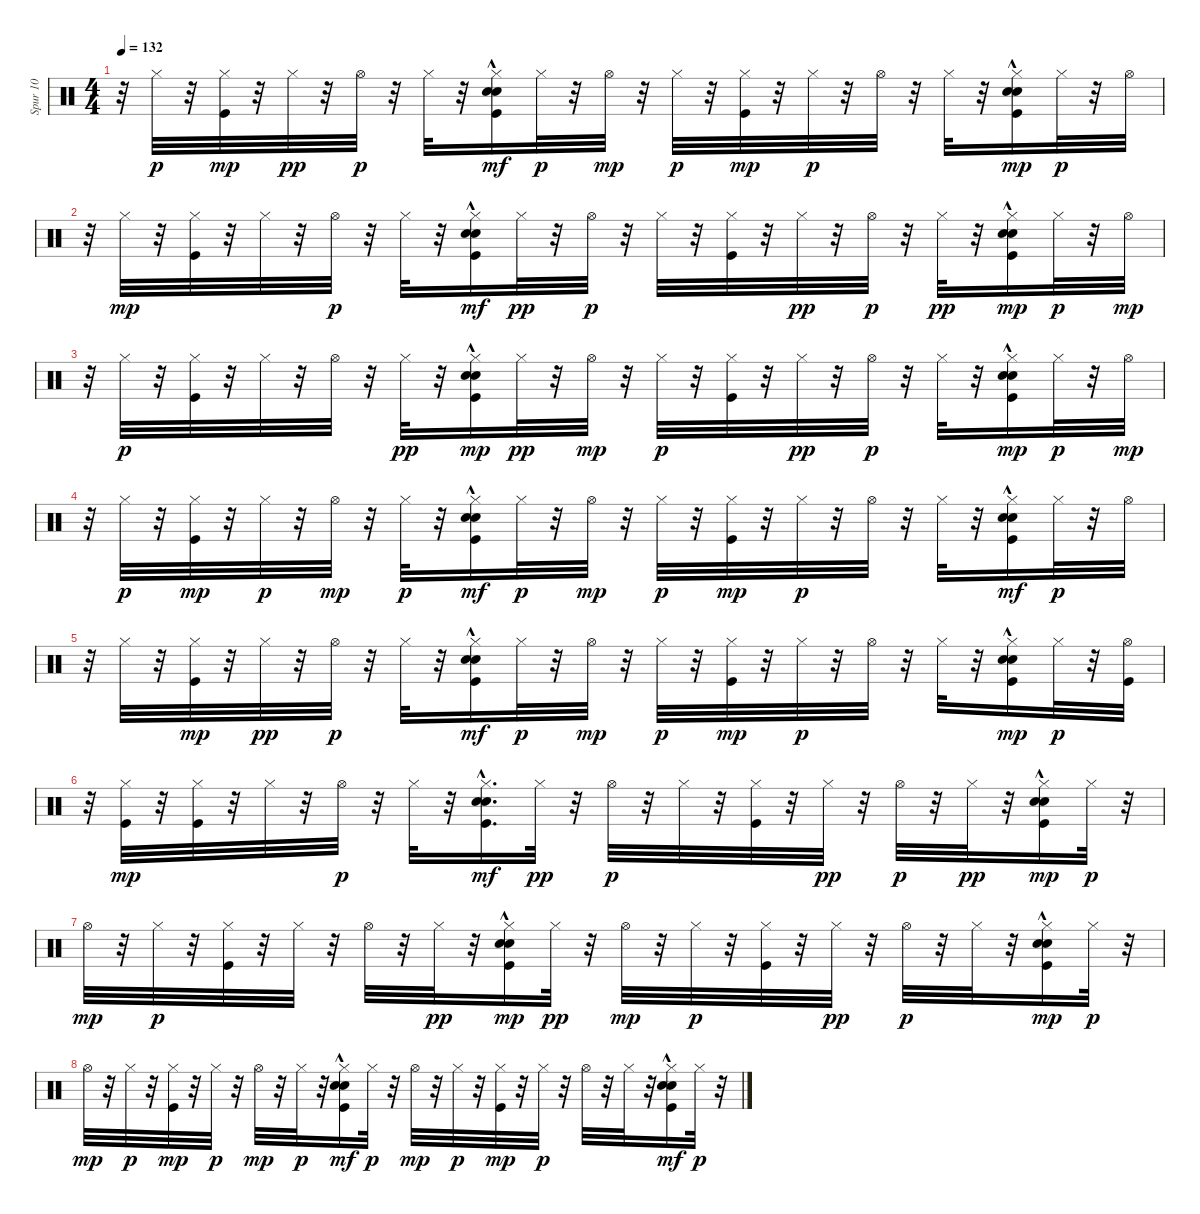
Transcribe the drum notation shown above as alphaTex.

\track ("Spur 10" "Spur 10") {instrument percussion}
\staff {score}
\articulation defaults
\ts (4 4)
\tempo 132
\clef neutral
\ks c
r.32{dy p} "Hi-Hat (closed)".32 r.32 ("Hi-Hat (closed)" "Kick (hit)").32{dy mp} r.32 "Hi-Hat (closed)".32{dy pp} r.32 "Hi-Hat (open)".32{dy p} r.32 "Hi-Hat (closed)".32 r.32 ("Hi-Hat (closed)" "Snare (hit) 2" "Kick (hit)" "Hand Clap (hit)"{hac}).16{dy mf} "Hi-Hat (closed)".32{dy p} r.32 "Hi-Hat (open)".32{dy mp} r.32 "Hi-Hat (closed)".32{dy p} r.32 ("Hi-Hat (closed)" "Kick (hit)").32{dy mp} r.32 "Hi-Hat (closed)".32{dy p} r.32 "Hi-Hat (open)".32 r.32 "Hi-Hat (closed)".32 r.32 ("Hi-Hat (closed)" "Kick (hit)" "Snare (hit) 2" "Hand Clap (hit)"{hac}).16{dy mp} "Hi-Hat (closed)".32{dy p} r.32 "Hi-Hat (open)".32 |
r.32 "Hi-Hat (closed)".32{dy mp} r.32 ("Kick (hit)" "Hi-Hat (closed)").32 r.32 "Hi-Hat (closed)".32 r.32 "Hi-Hat (open)".32{dy p} r.32 "Hi-Hat (closed)".32 r.32 ("Hi-Hat (closed)" "Snare (hit) 2" "Kick (hit)" "Hand Clap (hit)"{hac}).16{dy mf} "Hi-Hat (closed)".32{dy pp} r.32 "Hi-Hat (open)".32{dy p} r.32 "Hi-Hat (closed)".32 r.32 ("Hi-Hat (closed)" "Kick (hit)").32 r.32 "Hi-Hat (closed)".32{dy pp} r.32 "Hi-Hat (open)".32{dy p} r.32 "Hi-Hat (closed)".32{dy pp} r.32 ("Hi-Hat (closed)" "Kick (hit)" "Snare (hit) 2" "Hand Clap (hit)"{hac}).16{dy mp} "Hi-Hat (closed)".32{dy p} r.32 "Hi-Hat (open)".32{dy mp} |
r.32 "Hi-Hat (closed)".32{dy p} r.32 ("Hi-Hat (closed)" "Kick (hit)").32 r.32 "Hi-Hat (closed)".32 r.32 "Hi-Hat (open)".32 r.32 "Hi-Hat (closed)".32{dy pp} r.32 ("Hi-Hat (closed)" "Kick (hit)" "Snare (hit) 2" "Hand Clap (hit)"{hac}).16{dy mp} "Hi-Hat (closed)".32{dy pp} r.32 "Hi-Hat (open)".32{dy mp} r.32 "Hi-Hat (closed)".32{dy p} r.32 ("Hi-Hat (closed)" "Kick (hit)").32 r.32 "Hi-Hat (closed)".32{dy pp} r.32 "Hi-Hat (open)".32{dy p} r.32 "Hi-Hat (closed)".32 r.32 ("Hi-Hat (closed)" "Kick (hit)" "Snare (hit) 2" "Hand Clap (hit)"{hac}).16{dy mp} "Hi-Hat (closed)".32{dy p} r.32 "Hi-Hat (open)".32{dy mp} |
r.32 "Hi-Hat (closed)".32{dy p} r.32 ("Hi-Hat (closed)" "Kick (hit)").32{dy mp} r.32 "Hi-Hat (closed)".32{dy p} r.32 "Hi-Hat (open)".32{dy mp} r.32 "Hi-Hat (closed)".32{dy p} r.32 ("Hi-Hat (closed)" "Snare (hit) 2" "Kick (hit)" "Hand Clap (hit)"{hac}).16{dy mf} "Hi-Hat (closed)".32{dy p} r.32 "Hi-Hat (open)".32{dy mp} r.32 "Hi-Hat (closed)".32{dy p} r.32 ("Hi-Hat (closed)" "Kick (hit)").32{dy mp} r.32 "Hi-Hat (closed)".32{dy p} r.32 "Hi-Hat (open)".32 r.32 "Hi-Hat (closed)".32 r.32 ("Hi-Hat (closed)" "Snare (hit) 2" "Kick (hit)" "Hand Clap (hit)"{hac}).16{dy mf} "Hi-Hat (closed)".32{dy p} r.32 "Hi-Hat (open)".32 |
r.32 "Hi-Hat (closed)".32 r.32 ("Hi-Hat (closed)" "Kick (hit)").32{dy mp} r.32 "Hi-Hat (closed)".32{dy pp} r.32 "Hi-Hat (open)".32{dy p} r.32 "Hi-Hat (closed)".32 r.32 ("Hi-Hat (closed)" "Snare (hit) 2" "Kick (hit)" "Hand Clap (hit)"{hac}).16{dy mf} "Hi-Hat (closed)".32{dy p} r.32 "Hi-Hat (open)".32{dy mp} r.32 "Hi-Hat (closed)".32{dy p} r.32 ("Hi-Hat (closed)" "Kick (hit)").32{dy mp} r.32 "Hi-Hat (closed)".32{dy p} r.32 "Hi-Hat (open)".32 r.32 "Hi-Hat (closed)".32 r.32 ("Hi-Hat (closed)" "Kick (hit)" "Snare (hit) 2" "Hand Clap (hit)"{hac}).16{dy mp} "Hi-Hat (closed)".32{dy p} r.32 ("Kick (hit)" "Hi-Hat (open)").32 |
r.32 ("Kick (hit)" "Hi-Hat (closed)").32{dy mp} r.32 ("Kick (hit)" "Hi-Hat (closed)").32 r.32 "Hi-Hat (closed)".32 r.32 "Hi-Hat (open)".32{dy p} r.32 "Hi-Hat (closed)".32 r.32 ("Hi-Hat (closed)" "Snare (hit) 2" "Kick (hit)" "Hand Clap (hit)"{hac}).16{d dy mf} "Hi-Hat (closed)".32{dy pp} r.32 "Hi-Hat (open)".32{dy p} r.32 "Hi-Hat (closed)".32 r.32 ("Hi-Hat (closed)" "Kick (hit)").32 r.32 "Hi-Hat (closed)".32{dy pp} r.32 "Hi-Hat (open)".32{dy p} r.32 "Hi-Hat (closed)".32{dy pp} r.32 ("Hi-Hat (closed)" "Kick (hit)" "Snare (hit) 2" "Hand Clap (hit)"{hac}).16{dy mp} "Hi-Hat (closed)".32{dy p} r.32 |
"Hi-Hat (open)".32{dy mp} r.32 "Hi-Hat (closed)".32{dy p} r.32 ("Hi-Hat (closed)" "Kick (hit)").32 r.32 "Hi-Hat (closed)".32 r.32 "Hi-Hat (open)".32 r.32 "Hi-Hat (closed)".32{dy pp} r.32 ("Hi-Hat (closed)" "Kick (hit)" "Snare (hit) 2" "Hand Clap (hit)"{hac}).16{dy mp} "Hi-Hat (closed)".32{dy pp} r.32 "Hi-Hat (open)".32{dy mp} r.32 "Hi-Hat (closed)".32{dy p} r.32 ("Hi-Hat (closed)" "Kick (hit)").32 r.32 "Hi-Hat (closed)".32{dy pp} r.32 "Hi-Hat (open)".32{dy p} r.32 "Hi-Hat (closed)".32 r.32 ("Hi-Hat (closed)" "Kick (hit)" "Snare (hit) 2" "Hand Clap (hit)"{hac}).16{dy mp} "Hi-Hat (closed)".32{dy p} r.32 |
"Hi-Hat (open)".32{dy mp} r.32 "Hi-Hat (closed)".32{dy p} r.32 ("Hi-Hat (closed)" "Kick (hit)").32{dy mp} r.32 "Hi-Hat (closed)".32{dy p} r.32 "Hi-Hat (open)".32{dy mp} r.32 "Hi-Hat (closed)".32{dy p} r.32 ("Hi-Hat (closed)" "Snare (hit) 2" "Kick (hit)" "Hand Clap (hit)"{hac}).16{dy mf} "Hi-Hat (closed)".32{dy p} r.32 "Hi-Hat (open)".32{dy mp} r.32 "Hi-Hat (closed)".32{dy p} r.32 ("Hi-Hat (closed)" "Kick (hit)").32{dy mp} r.32 "Hi-Hat (closed)".32{dy p} r.32 "Hi-Hat (open)".32 r.32 "Hi-Hat (closed)".32 r.32 ("Hi-Hat (closed)" "Snare (hit) 2" "Kick (hit)" "Hand Clap (hit)"{hac}).16{dy mf} "Hi-Hat (closed)".32{dy p} r.32
